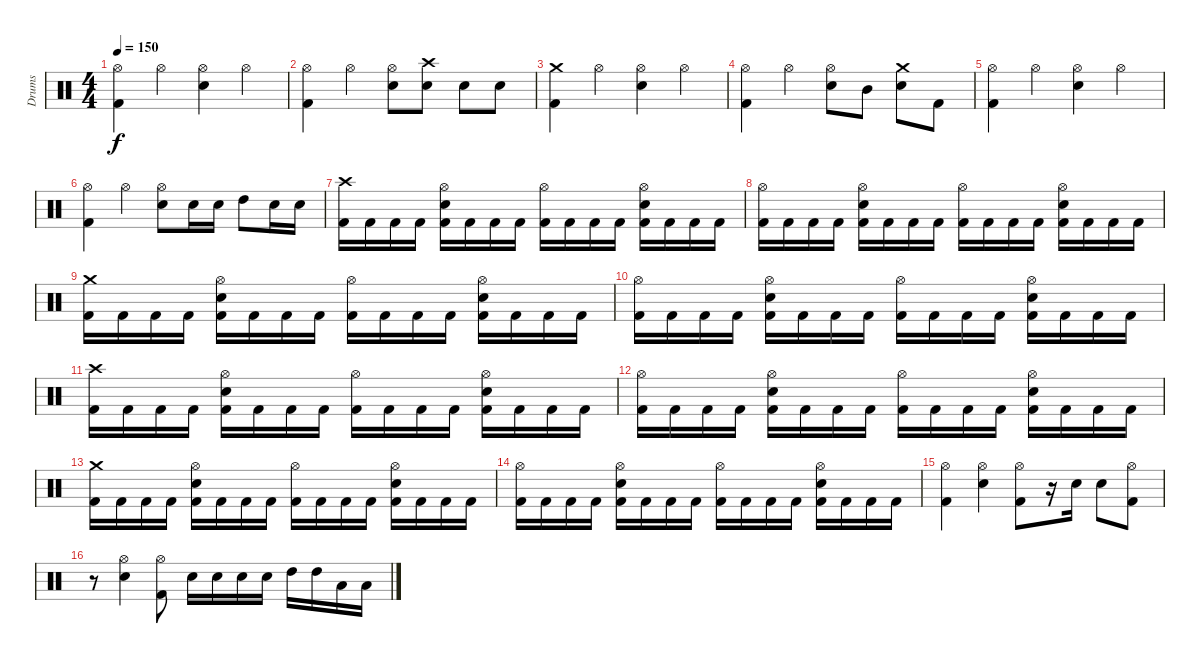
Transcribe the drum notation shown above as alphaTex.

\track ("Drums" "Drums") {instrument percussion}
\staff {score}
\articulation defaults
\ts (4 4)
\tempo 150
\clef neutral
\ks c
("Hi-Hat (open)" "Kick (hit) 2").4{dy f} "Hi-Hat (open)".4 ("Hi-Hat (open)" "Electric Snare (hit)").4 "Hi-Hat (open)".4 |
("Hi-Hat (open)" "Kick (hit) 2").4 "Hi-Hat (open)".4 ("Hi-Hat (open)" "Electric Snare (hit)").8 ("Crash high (hit)" "Electric Snare (hit)").8 "Electric Snare (hit)".8 "Electric Snare (hit)".8 |
("Crash medium (hit)" "Kick (hit) 2").4 "Hi-Hat (open)".4 ("Hi-Hat (open)" "Electric Snare (hit)").4 "Hi-Hat (open)".4 |
("Hi-Hat (open)" "Kick (hit) 2").4 "Hi-Hat (open)".4 ("Hi-Hat (open)" "Electric Snare (hit)").8 "Mid Tom (hit)".8 ("Crash medium (hit)" "Electric Snare (hit)").8 "Kick (hit) 2".8 |
("Hi-Hat (open)" "Kick (hit) 2").4 "Hi-Hat (open)".4 ("Hi-Hat (open)" "Electric Snare (hit)").4 "Hi-Hat (open)".4 |
("Hi-Hat (open)" "Kick (hit) 2").4 "Hi-Hat (open)".4 ("Hi-Hat (open)" "Electric Snare (hit)").8 "Electric Snare (hit)".16 "Electric Snare (hit)".16 "High Tom (hit)".8 "Electric Snare (hit)".16 "Electric Snare (hit)".16 |
("Crash high (hit)" "Kick (hit) 2").16 "Kick (hit) 2".16 "Kick (hit) 2".16 "Kick (hit) 2".16 ("Hi-Hat (open)" "Electric Snare (hit)" "Kick (hit) 2").16 "Kick (hit) 2".16 "Kick (hit) 2".16 "Kick (hit) 2".16 ("Hi-Hat (open)" "Kick (hit) 2").16 "Kick (hit) 2".16 "Kick (hit) 2".16 "Kick (hit) 2".16 ("Hi-Hat (open)" "Electric Snare (hit)" "Kick (hit) 2").16 "Kick (hit) 2".16 "Kick (hit) 2".16 "Kick (hit) 2".16 |
("Hi-Hat (open)" "Kick (hit) 2").16 "Kick (hit) 2".16 "Kick (hit) 2".16 "Kick (hit) 2".16 ("Hi-Hat (open)" "Electric Snare (hit)" "Kick (hit) 2").16 "Kick (hit) 2".16 "Kick (hit) 2".16 "Kick (hit) 2".16 ("Hi-Hat (open)" "Kick (hit) 2").16 "Kick (hit) 2".16 "Kick (hit) 2".16 "Kick (hit) 2".16 ("Hi-Hat (open)" "Electric Snare (hit)" "Kick (hit) 2").16 "Kick (hit) 2".16 "Kick (hit) 2".16 "Kick (hit) 2".16 |
("Crash medium (hit)" "Kick (hit) 2").16 "Kick (hit) 2".16 "Kick (hit) 2".16 "Kick (hit) 2".16 ("Hi-Hat (open)" "Electric Snare (hit)" "Kick (hit) 2").16 "Kick (hit) 2".16 "Kick (hit) 2".16 "Kick (hit) 2".16 ("Hi-Hat (open)" "Kick (hit) 2").16 "Kick (hit) 2".16 "Kick (hit) 2".16 "Kick (hit) 2".16 ("Hi-Hat (open)" "Electric Snare (hit)" "Kick (hit) 2").16 "Kick (hit) 2".16 "Kick (hit) 2".16 "Kick (hit) 2".16 |
("Hi-Hat (open)" "Kick (hit) 2").16 "Kick (hit) 2".16 "Kick (hit) 2".16 "Kick (hit) 2".16 ("Hi-Hat (open)" "Electric Snare (hit)" "Kick (hit) 2").16 "Kick (hit) 2".16 "Kick (hit) 2".16 "Kick (hit) 2".16 ("Hi-Hat (open)" "Kick (hit) 2").16 "Kick (hit) 2".16 "Kick (hit) 2".16 "Kick (hit) 2".16 ("Hi-Hat (open)" "Electric Snare (hit)" "Kick (hit) 2").16 "Kick (hit) 2".16 "Kick (hit) 2".16 "Kick (hit) 2".16 |
("Crash high (hit)" "Kick (hit) 2").16 "Kick (hit) 2".16 "Kick (hit) 2".16 "Kick (hit) 2".16 ("Hi-Hat (open)" "Electric Snare (hit)" "Kick (hit) 2").16 "Kick (hit) 2".16 "Kick (hit) 2".16 "Kick (hit) 2".16 ("Hi-Hat (open)" "Kick (hit) 2").16 "Kick (hit) 2".16 "Kick (hit) 2".16 "Kick (hit) 2".16 ("Hi-Hat (open)" "Electric Snare (hit)" "Kick (hit) 2").16 "Kick (hit) 2".16 "Kick (hit) 2".16 "Kick (hit) 2".16 |
("Hi-Hat (open)" "Kick (hit) 2").16 "Kick (hit) 2".16 "Kick (hit) 2".16 "Kick (hit) 2".16 ("Hi-Hat (open)" "Electric Snare (hit)" "Kick (hit) 2").16 "Kick (hit) 2".16 "Kick (hit) 2".16 "Kick (hit) 2".16 ("Hi-Hat (open)" "Kick (hit) 2").16 "Kick (hit) 2".16 "Kick (hit) 2".16 "Kick (hit) 2".16 ("Hi-Hat (open)" "Electric Snare (hit)" "Kick (hit) 2").16 "Kick (hit) 2".16 "Kick (hit) 2".16 "Kick (hit) 2".16 |
("Crash medium (hit)" "Kick (hit) 2").16 "Kick (hit) 2".16 "Kick (hit) 2".16 "Kick (hit) 2".16 ("Hi-Hat (open)" "Electric Snare (hit)" "Kick (hit) 2").16 "Kick (hit) 2".16 "Kick (hit) 2".16 "Kick (hit) 2".16 ("Hi-Hat (open)" "Kick (hit) 2").16 "Kick (hit) 2".16 "Kick (hit) 2".16 "Kick (hit) 2".16 ("Hi-Hat (open)" "Electric Snare (hit)" "Kick (hit) 2").16 "Kick (hit) 2".16 "Kick (hit) 2".16 "Kick (hit) 2".16 |
("Hi-Hat (open)" "Kick (hit) 2").16 "Kick (hit) 2".16 "Kick (hit) 2".16 "Kick (hit) 2".16 ("Hi-Hat (open)" "Electric Snare (hit)" "Kick (hit) 2").16 "Kick (hit) 2".16 "Kick (hit) 2".16 "Kick (hit) 2".16 ("Hi-Hat (open)" "Kick (hit) 2").16 "Kick (hit) 2".16 "Kick (hit) 2".16 "Kick (hit) 2".16 ("Hi-Hat (open)" "Electric Snare (hit)" "Kick (hit) 2").16 "Kick (hit) 2".16 "Kick (hit) 2".16 "Kick (hit) 2".16 |
("Hi-Hat (open)" "Kick (hit) 2").4 ("Hi-Hat (open)" "Electric Snare (hit)").4 ("Hi-Hat (open)" "Kick (hit) 2").8 r.16 "Electric Snare (hit)".16 "Electric Snare (hit)".8 ("Hi-Hat (open)" "Kick (hit) 2").8 |
r.8 ("Hi-Hat (open)" "Electric Snare (hit)").4 ("Hi-Hat (open)" "Kick (hit) 2").8 "Electric Snare (hit)".16 "Electric Snare (hit)".16 "Electric Snare (hit)".16 "Electric Snare (hit)".16 "High Tom (hit)".16 "High Tom (hit)".16 "Low Tom (hit)".16 "Low Tom (hit)".16
